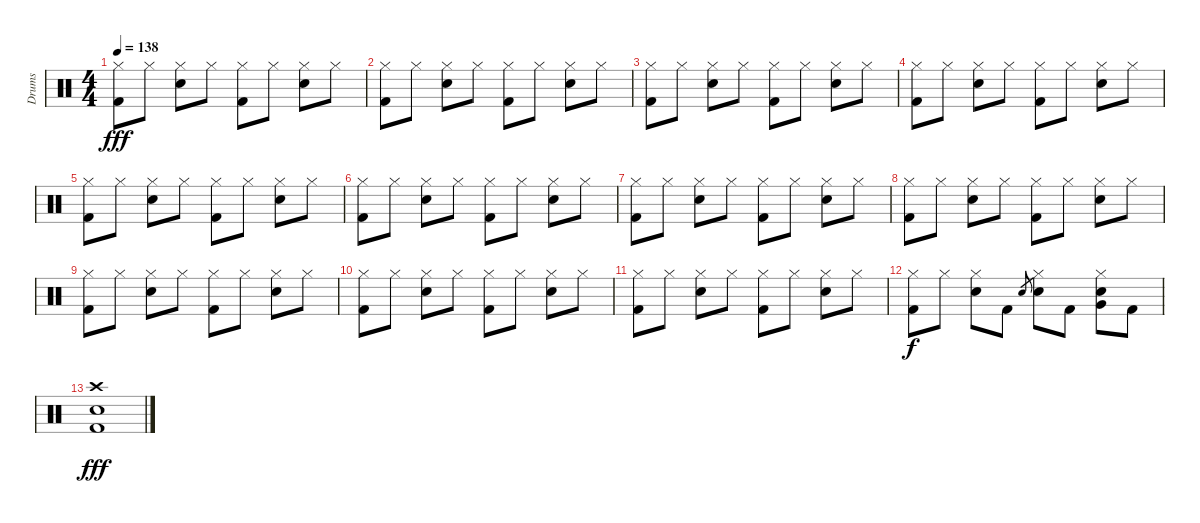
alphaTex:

\track ("Drums" "Drums") {instrument percussion}
\staff {score}
\articulation defaults
\ts (4 4)
\tempo 138
\clef neutral
\ks c
("Hi-Hat (closed)" "Kick (hit) 2").8{dy fff} "Hi-Hat (closed)".8 ("Hi-Hat (closed)" "Electric Snare (hit)").8 "Hi-Hat (closed)".8 ("Hi-Hat (closed)" "Kick (hit) 2").8 "Hi-Hat (closed)".8 ("Hi-Hat (closed)" "Electric Snare (hit)").8 "Hi-Hat (closed)".8 |
("Hi-Hat (closed)" "Kick (hit) 2").8 "Hi-Hat (closed)".8 ("Hi-Hat (closed)" "Electric Snare (hit)").8 "Hi-Hat (closed)".8 ("Hi-Hat (closed)" "Kick (hit) 2").8 "Hi-Hat (closed)".8 ("Hi-Hat (closed)" "Electric Snare (hit)").8 "Hi-Hat (closed)".8 |
("Hi-Hat (closed)" "Kick (hit) 2").8 "Hi-Hat (closed)".8 ("Hi-Hat (closed)" "Electric Snare (hit)").8 "Hi-Hat (closed)".8 ("Hi-Hat (closed)" "Kick (hit) 2").8 "Hi-Hat (closed)".8 ("Hi-Hat (closed)" "Electric Snare (hit)").8 "Hi-Hat (closed)".8 |
("Hi-Hat (closed)" "Kick (hit) 2").8 "Hi-Hat (closed)".8 ("Hi-Hat (closed)" "Electric Snare (hit)").8 "Hi-Hat (closed)".8 ("Hi-Hat (closed)" "Kick (hit) 2").8 "Hi-Hat (closed)".8 ("Hi-Hat (closed)" "Electric Snare (hit)").8 "Hi-Hat (closed)".8 |
("Hi-Hat (closed)" "Kick (hit) 2").8 "Hi-Hat (closed)".8 ("Hi-Hat (closed)" "Electric Snare (hit)").8 "Hi-Hat (closed)".8 ("Hi-Hat (closed)" "Kick (hit) 2").8 "Hi-Hat (closed)".8 ("Hi-Hat (closed)" "Electric Snare (hit)").8 "Hi-Hat (closed)".8 |
("Hi-Hat (closed)" "Kick (hit) 2").8 "Hi-Hat (closed)".8 ("Hi-Hat (closed)" "Electric Snare (hit)").8 "Hi-Hat (closed)".8 ("Hi-Hat (closed)" "Kick (hit) 2").8 "Hi-Hat (closed)".8 ("Hi-Hat (closed)" "Electric Snare (hit)").8 "Hi-Hat (closed)".8 |
("Hi-Hat (closed)" "Kick (hit) 2").8 "Hi-Hat (closed)".8 ("Hi-Hat (closed)" "Electric Snare (hit)").8 "Hi-Hat (closed)".8 ("Hi-Hat (closed)" "Kick (hit) 2").8 "Hi-Hat (closed)".8 ("Hi-Hat (closed)" "Electric Snare (hit)").8 "Hi-Hat (closed)".8 |
("Hi-Hat (closed)" "Kick (hit) 2").8 "Hi-Hat (closed)".8 ("Hi-Hat (closed)" "Electric Snare (hit)").8 "Hi-Hat (closed)".8 ("Hi-Hat (closed)" "Kick (hit) 2").8 "Hi-Hat (closed)".8 ("Hi-Hat (closed)" "Electric Snare (hit)").8 "Hi-Hat (closed)".8 |
("Hi-Hat (closed)" "Kick (hit) 2").8 "Hi-Hat (closed)".8 ("Hi-Hat (closed)" "Electric Snare (hit)").8 "Hi-Hat (closed)".8 ("Hi-Hat (closed)" "Kick (hit) 2").8 "Hi-Hat (closed)".8 ("Hi-Hat (closed)" "Electric Snare (hit)").8 "Hi-Hat (closed)".8 |
("Hi-Hat (closed)" "Kick (hit) 2").8 "Hi-Hat (closed)".8 ("Hi-Hat (closed)" "Electric Snare (hit)").8 "Hi-Hat (closed)".8 ("Hi-Hat (closed)" "Kick (hit) 2").8 "Hi-Hat (closed)".8 ("Hi-Hat (closed)" "Electric Snare (hit)").8 "Hi-Hat (closed)".8 |
("Hi-Hat (closed)" "Kick (hit) 2").8 "Hi-Hat (closed)".8 ("Hi-Hat (closed)" "Electric Snare (hit)").8 "Hi-Hat (closed)".8 ("Hi-Hat (closed)" "Kick (hit) 2").8 "Hi-Hat (closed)".8 ("Hi-Hat (closed)" "Electric Snare (hit)").8 "Hi-Hat (closed)".8 |
("Hi-Hat (closed)" "Kick (hit) 2").8{dy f} "Hi-Hat (closed)".8 ("Hi-Hat (closed)" "Electric Snare (hit)").8 "Kick (hit) 2".8 "Electric Snare (hit)".8{gr} ("Hi-Hat (closed)" "Electric Snare (hit)").8 "Kick (hit) 2".8 ("Hi-Hat (closed)" "Electric Snare (hit)" "Very Low Tom (hit)").8 "Kick (hit) 2".8 |
("Crash high (hit)" "Electric Snare (hit)" "Kick (hit) 2").1{dy fff}
